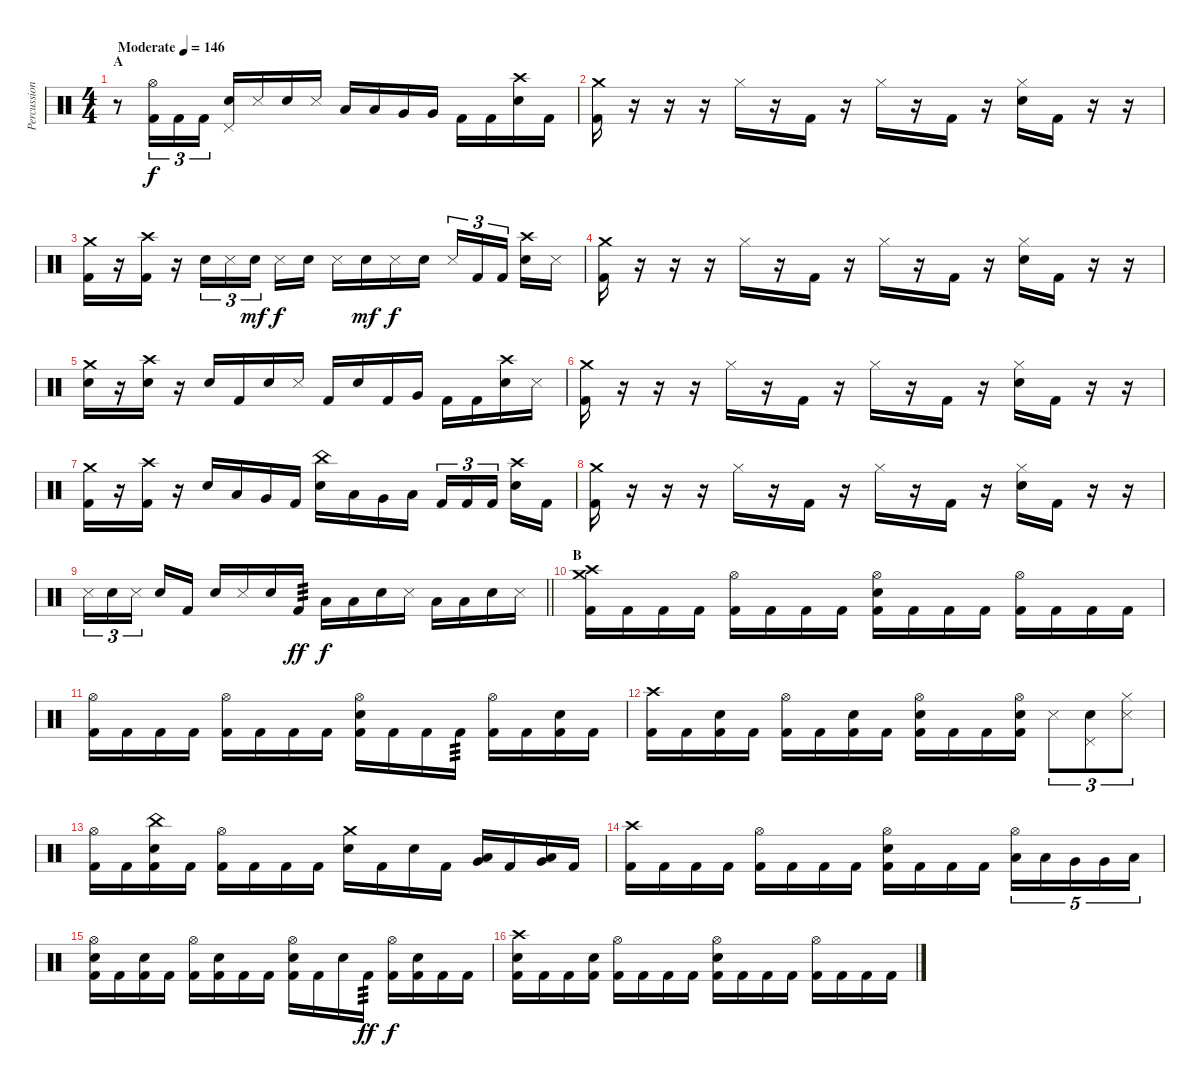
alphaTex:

\track ("Percussion" "Percussion") {instrument percussion}
\staff {score}
\articulation defaults
\ts (4 4)
\section ("" "A")
\tempo (146 "Moderate")
\clef neutral
\ks c
r.8{dy f} ("Hi-Hat (open)" "Kick (hit) 2").16{tu (3 2)} "Kick (hit) 2".16{tu (3 2)} "Kick (hit) 2".16{tu (3 2)} ("Pedal Hi-Hat (hit)" "Snare (hit) 2").16 "Metronome (hit)".16 "Snare (hit) 2".16 "Metronome (hit)".16 "Low Tom (hit)".16 "Low Tom (hit)".16 "Very Low Tom (hit)".16 "Very Low Tom (hit)".16 "Kick (hit) 2".16 "Kick (hit) 2".16 ("Crash high (hit)" "Snare (hit) 2").16 "Kick (hit) 2".16 |
("Crash medium (hit)" "Kick (hit) 2").16 r.16 r.16 r.16 "Hi-Hat (closed)".16 r.16 "Kick (hit) 2".16 r.16 "Hi-Hat (closed)".16 r.16 "Kick (hit) 2".16 r.16 ("Hi-Hat (closed)" "Snare (hit) 2").16 "Kick (hit) 2".16 r.16 r.16 |
("Crash medium (hit)" "Kick (hit) 2").16 r.16 ("Crash high (hit)" "Kick (hit) 2").16 r.16 "Snare (hit) 2".16{tu (3 2)} "Metronome (hit)".16{tu (3 2)} "Snare (hit) 2".16{tu (3 2) dy mf beam splitsecondary} "Metronome (hit)".16{dy f} "Snare (hit) 2".16 "Metronome (hit)".16 "Snare (hit) 2".16{dy mf} "Metronome (hit)".16{dy f} "Snare (hit) 2".16 "Metronome (hit)".16{tu (3 2)} "Kick (hit) 2".16{tu (3 2)} "Kick (hit) 2".16{tu (3 2) beam splitsecondary} ("Crash high (hit)" "Snare (hit) 2").16 "Metronome (hit)".16 |
("Crash medium (hit)" "Kick (hit) 2").16 r.16 r.16 r.16 "Hi-Hat (closed)".16 r.16 "Kick (hit) 2".16 r.16 "Hi-Hat (closed)".16 r.16 "Kick (hit) 2".16 r.16 ("Hi-Hat (closed)" "Snare (hit) 2").16 "Kick (hit) 2".16 r.16 r.16 |
("Crash medium (hit)" "Snare (hit) 2").16 r.16 ("Crash high (hit)" "Snare (hit) 2").16 r.16 "Snare (hit) 2".16 "Kick (hit) 2".16 "Snare (hit) 2".16 "Metronome (hit)".16 "Kick (hit) 2".16 "Snare (hit) 2".16 "Kick (hit) 2".16 "Very Low Tom (hit)".16 "Kick (hit) 2".16 "Kick (hit) 2".16 ("Crash high (hit)" "Snare (hit) 2").16 "Metronome (hit)".16 |
("Crash medium (hit)" "Kick (hit) 2").16 r.16 r.16 r.16 "Hi-Hat (closed)".16 r.16 "Kick (hit) 2".16 r.16 "Hi-Hat (closed)".16 r.16 "Kick (hit) 2".16 r.16 ("Hi-Hat (closed)" "Snare (hit) 2").16 "Kick (hit) 2".16 r.16 r.16 |
("Crash medium (hit)" "Kick (hit) 2").16 r.16 ("Crash high (hit)" "Kick (hit) 2").16 r.16 "Snare (hit) 2".16 "Low Tom (hit)".16 "Very Low Tom (hit)".16 "Kick (hit) 2".16 ("China (hit)" "Snare (hit) 2").16 "Low Tom (hit)".16 "Very Low Tom (hit)".16 "Low Floor Tom (hit)".16 "Kick (hit) 2".16{tu (3 2)} "Kick (hit) 2".16{tu (3 2)} "Kick (hit) 2".16{tu (3 2) beam splitsecondary} ("Crash high (hit)" "Snare (hit) 2").16 "Kick (hit) 2".16 |
("Crash medium (hit)" "Kick (hit) 2").16 r.16 r.16 r.16 "Hi-Hat (closed)".16 r.16 "Kick (hit) 2".16 r.16 "Hi-Hat (closed)".16 r.16 "Kick (hit) 2".16 r.16 ("Hi-Hat (closed)" "Snare (hit) 2").16 "Kick (hit) 2".16 r.16 r.16 |
\barLineRight lightlight "Metronome (hit)".16{tu (3 2)} "Snare (hit) 2".16{tu (3 2)} "Metronome (hit)".16{tu (3 2) beam splitsecondary} "Snare (hit) 2".16 "Kick (hit) 2".16 "Snare (hit) 2".16 "Metronome (hit)".16 "Snare (hit) 2".16 "Kick (hit) 2".16{tp 3 dy ff} "Low Tom (hit)".16{dy f} "Low Floor Tom (hit)".16 "Snare (hit) 2".16 "Metronome (hit)".16 "Low Tom (hit)".16 "Low Floor Tom (hit)".16 "Snare (hit) 2".16 "Metronome (hit)".16
|
\section ("" "B")
("Crash medium (hit)" "Crash high (hit)" "Kick (hit) 2").16 "Kick (hit) 2".16 "Kick (hit) 2".16 "Kick (hit) 2".16 ("Hi-Hat (open)" "Kick (hit) 2").16 "Kick (hit) 2".16 "Kick (hit) 2".16 "Kick (hit) 2".16 ("Hi-Hat (open)" "Snare (hit) 2" "Kick (hit) 2").16 "Kick (hit) 2".16 "Kick (hit) 2".16 "Kick (hit) 2".16 ("Hi-Hat (open)" "Kick (hit) 2").16 "Kick (hit) 2".16 "Kick (hit) 2".16 "Kick (hit) 2".16 |
("Hi-Hat (open)" "Kick (hit) 2").16 "Kick (hit) 2".16 "Kick (hit) 2".16 "Kick (hit) 2".16 ("Hi-Hat (open)" "Kick (hit) 2").16 "Kick (hit) 2".16 "Kick (hit) 2".16 "Kick (hit) 2".16 ("Hi-Hat (open)" "Snare (hit) 2" "Kick (hit) 2").16 "Kick (hit) 2".16 "Kick (hit) 2".16 "Kick (hit) 2".16{tp 3} ("Hi-Hat (open)" "Kick (hit) 2").16 "Kick (hit) 2".16 ("Snare (hit) 2" "Kick (hit) 2").16 "Kick (hit) 2".16 |
("Crash high (hit)" "Kick (hit) 2").16 "Kick (hit) 2".16 ("Snare (hit) 2" "Kick (hit) 2").16 "Kick (hit) 2".16 ("Hi-Hat (open)" "Kick (hit) 2").16 "Kick (hit) 2".16 ("Snare (hit) 2" "Kick (hit) 2").16 "Kick (hit) 2".16 ("Hi-Hat (open)" "Snare (hit) 2" "Kick (hit) 2").16 "Kick (hit) 2".16 "Kick (hit) 2".16 ("Hi-Hat (open)" "Snare (hit) 2" "Kick (hit) 2").16 "Metronome (hit)".8{tu (3 2)} ("Pedal Hi-Hat (hit)" "Snare (hit) 2").8{tu (3 2)} ("Hi-Hat (closed)" "Metronome (hit)").8{tu (3 2)} |
("Hi-Hat (open)" "Kick (hit) 2").16 "Kick (hit) 2".16 ("China (hit)" "Snare (hit) 2" "Kick (hit) 2").16 "Kick (hit) 2".16 ("Hi-Hat (open)" "Kick (hit) 2").16 "Kick (hit) 2".16 "Kick (hit) 2".16 "Kick (hit) 2".16 ("Crash medium (hit)" "Snare (hit) 2").16 "Kick (hit) 2".16 "Snare (hit) 2".16 "Kick (hit) 2".16 ("Low Tom (hit)" "Very Low Tom (hit)").16{bu 60} "Kick (hit) 2".16 ("Low Tom (hit)" "Very Low Tom (hit)").16{bu 60} "Kick (hit) 2".16 |
("Crash high (hit)" "Kick (hit) 2").16 "Kick (hit) 2".16 "Kick (hit) 2".16 "Kick (hit) 2".16 ("Hi-Hat (open)" "Kick (hit) 2").16 "Kick (hit) 2".16 "Kick (hit) 2".16 "Kick (hit) 2".16 ("Hi-Hat (open)" "Snare (hit) 2" "Kick (hit) 2").16 "Kick (hit) 2".16 "Kick (hit) 2".16 "Kick (hit) 2".16 ("Hi-Hat (open)" "Low Tom (hit)").16{tu (5 4)} "Low Tom (hit)".16{tu (5 4)} "Very Low Tom (hit)".16{tu (5 4)} "Very Low Tom (hit)".16{tu (5 4)} "Low Floor Tom (hit)".16{tu (5 4)} |
("Hi-Hat (open)" "Snare (hit) 2" "Kick (hit) 2").16 "Kick (hit) 2".16 ("Snare (hit) 2" "Kick (hit) 2").16 "Kick (hit) 2".16 ("Hi-Hat (open)" "Kick (hit) 2").16 ("Snare (hit) 2" "Kick (hit) 2").16 "Kick (hit) 2".16 "Kick (hit) 2".16 ("Hi-Hat (open)" "Snare (hit) 2" "Kick (hit) 2").16 "Kick (hit) 2".16 "Snare (hit) 2".16 "Kick (hit) 2".16{tp 3 dy ff} ("Hi-Hat (open)" "Kick (hit) 2").16{dy f} ("Snare (hit) 2" "Kick (hit) 2").16 "Kick (hit) 2".16 "Kick (hit) 2".16 |
("Crash high (hit)" "Snare (hit) 2" "Kick (hit) 2").16 "Kick (hit) 2".16 "Kick (hit) 2".16 ("Snare (hit) 2" "Kick (hit) 2").16 ("Hi-Hat (open)" "Kick (hit) 2").16 "Kick (hit) 2".16 "Kick (hit) 2".16 "Kick (hit) 2".16 ("Hi-Hat (open)" "Snare (hit) 2" "Kick (hit) 2").16 "Kick (hit) 2".16 "Kick (hit) 2".16 "Kick (hit) 2".16 ("Hi-Hat (open)" "Kick (hit) 2").16 "Kick (hit) 2".16 "Kick (hit) 2".16 "Kick (hit) 2".16
